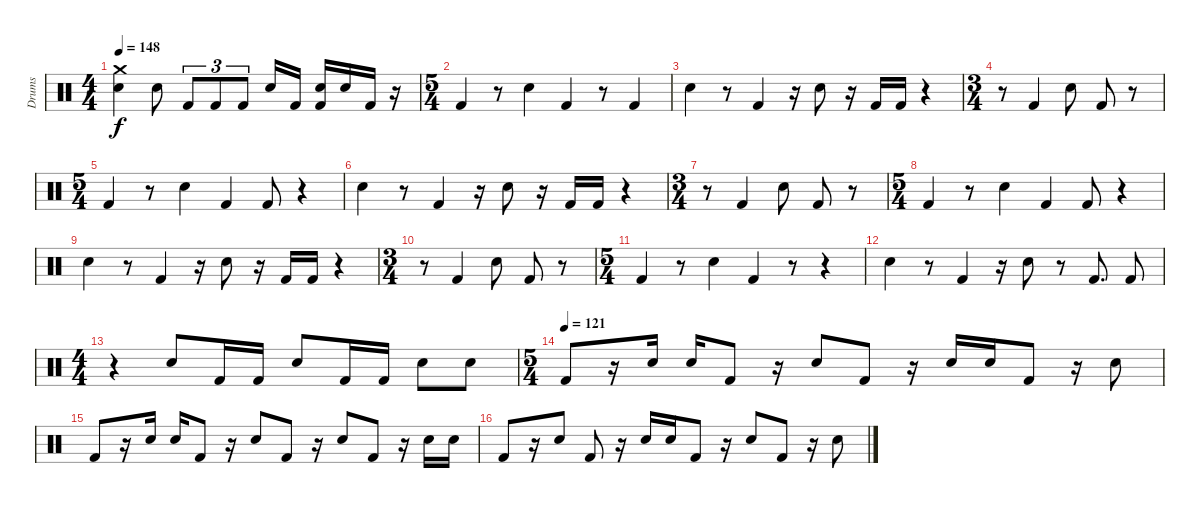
\track ("Drums" "Drums") {instrument percussion}
\staff {score}
\articulation defaults
\ts (4 4)
\tempo 148
\clef neutral
\ks c
("Crash medium (hit)" "Electric Snare (hit)").4{dy f} "Electric Snare (hit)".8 "Kick (hit) 2".8{tu (3 2)} "Kick (hit) 2".8{tu (3 2)} "Kick (hit) 2".8{tu (3 2)} "Electric Snare (hit)".16 "Kick (hit) 2".16 ("Electric Snare (hit)" "Kick (hit) 2").16 "Electric Snare (hit)".16 "Kick (hit) 2".16 r.16 |
\ts (5 4)
"Kick (hit) 2".4 r.8 "Electric Snare (hit)".4 "Kick (hit) 2".4 r.8 "Kick (hit) 2".4 |
"Electric Snare (hit)".4 r.8 "Kick (hit) 2".4 r.16 "Electric Snare (hit)".8 r.16 "Kick (hit) 2".16 "Kick (hit) 2".16 r.4 |
\ts (3 4)
r.8 "Kick (hit) 2".4 "Electric Snare (hit)".8 "Kick (hit) 2".8 r.8 |
\ts (5 4)
"Kick (hit) 2".4 r.8 "Electric Snare (hit)".4 "Kick (hit) 2".4 "Kick (hit) 2".8 r.4 |
"Electric Snare (hit)".4 r.8 "Kick (hit) 2".4 r.16 "Electric Snare (hit)".8 r.16 "Kick (hit) 2".16 "Kick (hit) 2".16 r.4 |
\ts (3 4)
r.8 "Kick (hit) 2".4 "Electric Snare (hit)".8 "Kick (hit) 2".8 r.8 |
\ts (5 4)
"Kick (hit) 2".4 r.8 "Electric Snare (hit)".4 "Kick (hit) 2".4 "Kick (hit) 2".8 r.4 |
"Electric Snare (hit)".4 r.8 "Kick (hit) 2".4 r.16 "Electric Snare (hit)".8 r.16 "Kick (hit) 2".16 "Kick (hit) 2".16 r.4 |
\ts (3 4)
r.8 "Kick (hit) 2".4 "Electric Snare (hit)".8 "Kick (hit) 2".8 r.8 |
\ts (5 4)
"Kick (hit) 2".4 r.8 "Electric Snare (hit)".4 "Kick (hit) 2".4 r.8 r.4 |
"Electric Snare (hit)".4 r.8 "Kick (hit) 2".4 r.16 "Electric Snare (hit)".8 r.8 "Kick (hit) 2".8{d} "Kick (hit) 2".8 |
\ts (4 4)
r.4 "Electric Snare (hit)".8 "Kick (hit) 2".16 "Kick (hit) 2".16 "Electric Snare (hit)".8 "Kick (hit) 2".16 "Kick (hit) 2".16 "Electric Snare (hit)".8 "Electric Snare (hit)".8 |
\ts (5 4)
\tempo (121)
"Kick (hit) 2".8 r.16 "Electric Snare (hit)".16 "Electric Snare (hit)".16 "Kick (hit) 2".8 r.16 "Electric Snare (hit)".8 "Kick (hit) 2".8 r.16 "Electric Snare (hit)".16 "Electric Snare (hit)".16 "Kick (hit) 2".8 r.16 "Electric Snare (hit)".8 |
"Kick (hit) 2".8 r.16 "Electric Snare (hit)".16 "Electric Snare (hit)".16 "Kick (hit) 2".8 r.16 "Electric Snare (hit)".8 "Kick (hit) 2".8 r.16 "Electric Snare (hit)".8 "Kick (hit) 2".8 r.16 "Electric Snare (hit)".16 "Electric Snare (hit)".16 |
"Kick (hit) 2".8 r.16 "Electric Snare (hit)".8 "Kick (hit) 2".8 r.16 "Electric Snare (hit)".16 "Electric Snare (hit)".16 "Kick (hit) 2".8 r.16 "Electric Snare (hit)".8 "Kick (hit) 2".8 r.16 "Electric Snare (hit)".8
